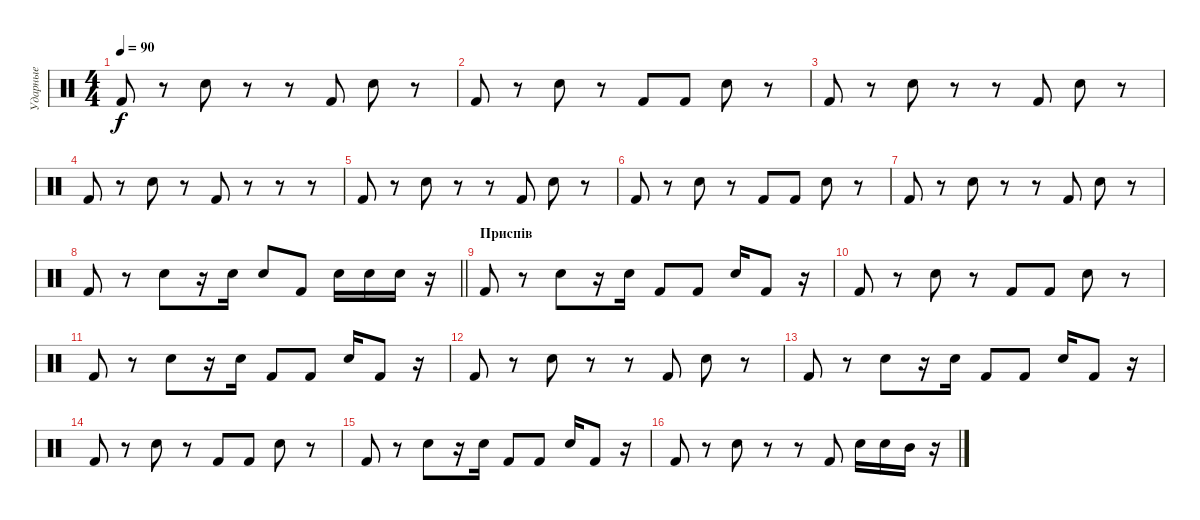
\track ("Ударные" "Ударные") {instrument percussion}
\staff {score}
\articulation defaults
\ts (4 4)
\tempo 90
\clef neutral
\ks c "Kick (hit) 2".8{dy f}
r.8 "Snare (hit) 2".8 r.8 r.8 "Kick (hit) 2".8 "Snare (hit) 2".8 r.8 |
"Kick (hit) 2".8 r.8 "Snare (hit) 2".8 r.8 "Kick (hit) 2".8 "Kick (hit) 2".8 "Snare (hit) 2".8 r.8 |
"Kick (hit) 2".8 r.8 "Snare (hit) 2".8 r.8 r.8 "Kick (hit) 2".8 "Snare (hit) 2".8 r.8 |
"Kick (hit) 2".8 r.8 "Snare (hit) 2".8 r.8 "Kick (hit) 2".8 r.8 r.8 r.8 |
"Kick (hit) 2".8 r.8 "Snare (hit) 2".8 r.8 r.8 "Kick (hit) 2".8 "Snare (hit) 2".8 r.8 |
"Kick (hit) 2".8 r.8 "Snare (hit) 2".8 r.8 "Kick (hit) 2".8 "Kick (hit) 2".8 "Snare (hit) 2".8 r.8 |
"Kick (hit) 2".8 r.8 "Snare (hit) 2".8 r.8 r.8 "Kick (hit) 2".8 "Snare (hit) 2".8 r.8 |
\barLineRight lightlight "Kick (hit) 2".8
r.8 "Snare (hit) 2".8 r.16 "Snare (hit) 2".16 "Snare (hit) 2".8 "Kick (hit) 2".8 "Snare (hit) 2".16 "Snare (hit) 2".16 "Snare (hit) 2".16 r.16 |
\section ("" "Приспів")
"Kick (hit) 2".8 r.8 "Snare (hit) 2".8 r.16 "Snare (hit) 2".16 "Kick (hit) 2".8 "Kick (hit) 2".8 "Snare (hit) 2".16 "Kick (hit) 2".8 r.16 |
"Kick (hit) 2".8 r.8 "Snare (hit) 2".8 r.8 "Kick (hit) 2".8 "Kick (hit) 2".8 "Snare (hit) 2".8 r.8 |
"Kick (hit) 2".8 r.8 "Snare (hit) 2".8 r.16 "Snare (hit) 2".16 "Kick (hit) 2".8 "Kick (hit) 2".8 "Snare (hit) 2".16 "Kick (hit) 2".8 r.16 |
"Kick (hit) 2".8 r.8 "Snare (hit) 2".8 r.8 r.8 "Kick (hit) 2".8 "Snare (hit) 2".8 r.8 |
"Kick (hit) 2".8 r.8 "Snare (hit) 2".8 r.16 "Snare (hit) 2".16 "Kick (hit) 2".8 "Kick (hit) 2".8 "Snare (hit) 2".16 "Kick (hit) 2".8 r.16 |
"Kick (hit) 2".8 r.8 "Snare (hit) 2".8 r.8 "Kick (hit) 2".8 "Kick (hit) 2".8 "Snare (hit) 2".8 r.8 |
"Kick (hit) 2".8 r.8 "Snare (hit) 2".8 r.16 "Snare (hit) 2".16 "Kick (hit) 2".8 "Kick (hit) 2".8 "Snare (hit) 2".16 "Kick (hit) 2".8 r.16 |
"Kick (hit) 2".8 r.8 "Snare (hit) 2".8 r.8 r.8 "Kick (hit) 2".8 "Snare (hit) 2".16 "Snare (hit) 2".16 "Mid Tom (hit)".16 r.16
